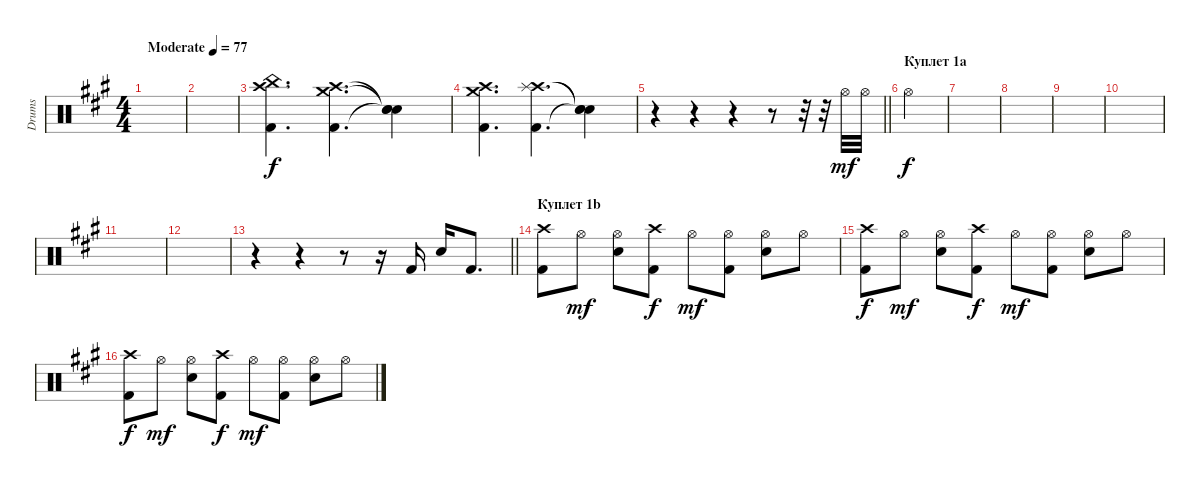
\track ("Drums" "Drums") {instrument percussion}
\staff {score}
\articulation defaults
\ts (4 4)
\tempo (77 "Moderate")
\clef neutral
\ks f#minor
|
|
("Kick (hit) 2" "Crash high (hit)" "China (hit)").4{d} ("Kick (hit) 2" "Crash medium (hit)" "Crash high (hit)").4{d} ("Snare (hit)"{t} "Snare (hit)"{t} "Snare (hit)"{t}).4 |
("Kick (hit) 2" "Crash medium (hit)" "Crash high (hit)").4{d} ("Kick (hit) 2" "Crash high (hit)" "Splash (hit)").4{d} ("Snare (hit)"{t} "Snare (hit)"{t} "Snare (hit)"{t}).4 |
\barLineRight lightlight
r.4 r.4 r.4 r.8 r.32 r.32 "Hi-Hat (open)".32{dy mf} "Hi-Hat (open)".32 |
\section ("" "Куплет 1a")
"Hi-Hat (open)".4{dy f} |
|
|
|
|
|
|
\barLineRight lightlight
r.4 r.4 r.8 r.16 "Kick (hit) 2".16 "Electric Snare (hit)".16 "Kick (hit) 2".8{d} |
\section ("" "Куплет 1b")
("Crash high (hit)" "Kick (hit) 2").8 "Hi-Hat (open)".8{dy mf} ("Hi-Hat (open)" "Electric Snare (hit)").8 ("Crash high (hit)" "Kick (hit) 2").8{dy f} "Hi-Hat (open)".8{dy mf} ("Hi-Hat (open)" "Kick (hit) 2").8 ("Hi-Hat (open)" "Electric Snare (hit)").8 "Hi-Hat (open)".8 |
("Crash high (hit)" "Kick (hit) 2").8{dy f} "Hi-Hat (open)".8{dy mf} ("Hi-Hat (open)" "Electric Snare (hit)").8 ("Crash high (hit)" "Kick (hit) 2").8{dy f} "Hi-Hat (open)".8{dy mf} ("Hi-Hat (open)" "Kick (hit) 2").8 ("Hi-Hat (open)" "Electric Snare (hit)").8 "Hi-Hat (open)".8 |
("Crash high (hit)" "Kick (hit) 2").8{dy f} "Hi-Hat (open)".8{dy mf} ("Hi-Hat (open)" "Electric Snare (hit)").8 ("Crash high (hit)" "Kick (hit) 2").8{dy f} "Hi-Hat (open)".8{dy mf} ("Hi-Hat (open)" "Kick (hit) 2").8 ("Hi-Hat (open)" "Electric Snare (hit)").8 "Hi-Hat (open)".8
